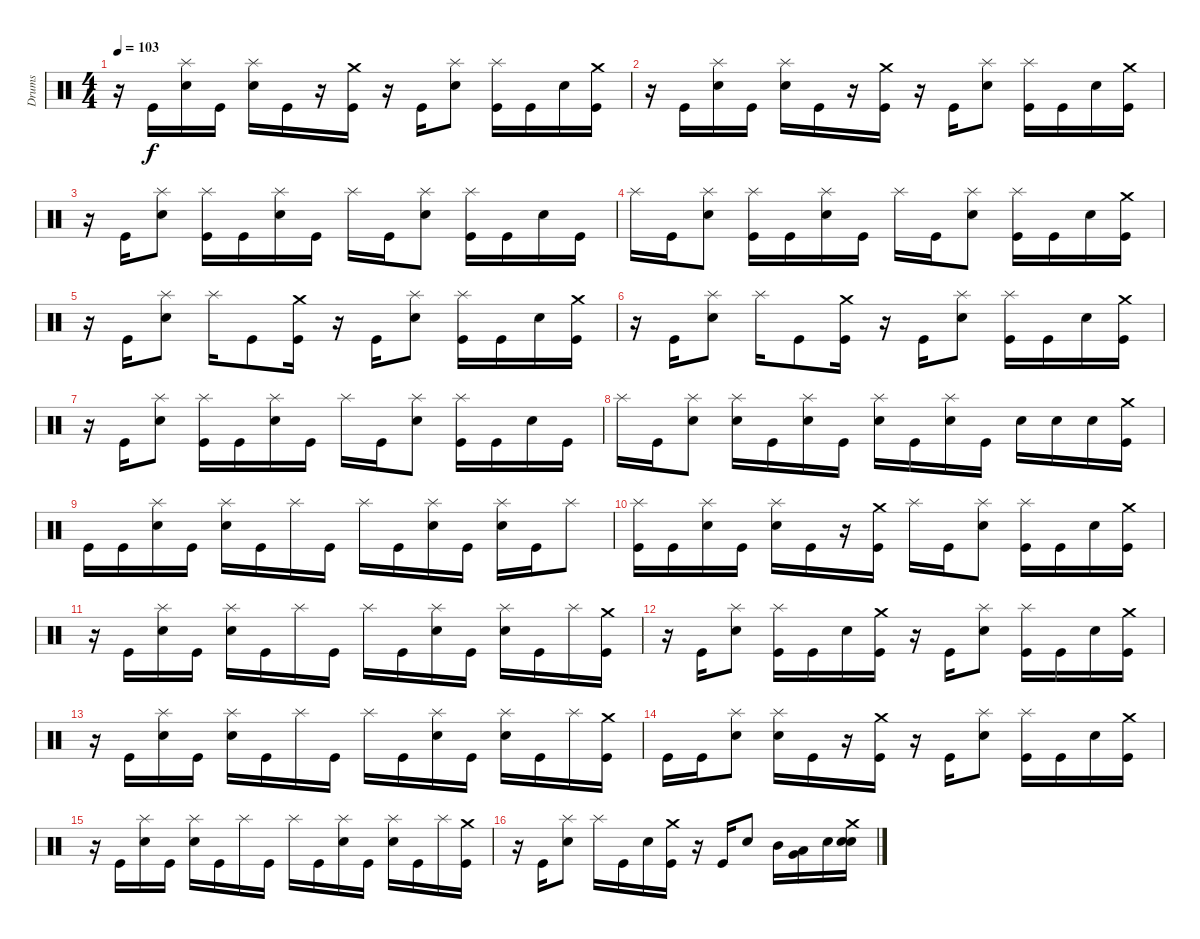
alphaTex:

\track ("Drums" "Drums") {instrument percussion}
\staff {score}
\articulation defaults
\ts (4 4)
\tempo 103
\clef neutral
\ks c
r.16{dy f} "Kick (hit)".16 ("Splash (hit)" "Electric Snare (hit)").16 "Kick (hit)".16 ("Splash (hit)" "Electric Snare (hit)").16 "Kick (hit)".16 r.16 ("Crash medium (hit)" "Kick (hit)").16 r.16 "Kick (hit)".16 ("Splash (hit)" "Electric Snare (hit)").8 ("Kick (hit)" "Splash (hit)").16 "Kick (hit)".16 "Electric Snare (hit)".16 ("Crash medium (hit)" "Kick (hit)").16 |
r.16 "Kick (hit)".16 ("Splash (hit)" "Electric Snare (hit)").16 "Kick (hit)".16 ("Splash (hit)" "Electric Snare (hit)").16 "Kick (hit)".16 r.16 ("Crash medium (hit)" "Kick (hit)").16 r.16 "Kick (hit)".16 ("Splash (hit)" "Electric Snare (hit)").8 ("Kick (hit)" "Splash (hit)").16 "Kick (hit)".16 "Electric Snare (hit)".16 ("Crash medium (hit)" "Kick (hit)").16 |
r.16 "Kick (hit)".16 ("Splash (hit)" "Electric Snare (hit)").8 ("Kick (hit)" "Splash (hit)").16 "Kick (hit)".16 ("Electric Snare (hit)" "Splash (hit)").16 "Kick (hit)".16 "Splash (hit)".16 "Kick (hit)".16 ("Splash (hit)" "Electric Snare (hit)").8 ("Kick (hit)" "Splash (hit)").16 "Kick (hit)".16 "Electric Snare (hit)".16 "Kick (hit)".16 |
"Splash (hit)".16 "Kick (hit)".16 ("Splash (hit)" "Electric Snare (hit)").8 ("Splash (hit)" "Kick (hit)").16 "Kick (hit)".16 ("Splash (hit)" "Electric Snare (hit)").16 "Kick (hit)".16 "Splash (hit)".16 "Kick (hit)".16 ("Splash (hit)" "Electric Snare (hit)").8 ("Splash (hit)" "Kick (hit)").16 "Kick (hit)".16 "Electric Snare (hit)".16 ("Crash medium (hit)" "Kick (hit)").16 |
r.16 "Kick (hit)".16 ("Splash (hit)" "Electric Snare (hit)").8 "Splash (hit)".16 "Kick (hit)".8 ("Crash medium (hit)" "Kick (hit)").16 r.16 "Kick (hit)".16 ("Splash (hit)" "Electric Snare (hit)").8 ("Splash (hit)" "Kick (hit)").16 "Kick (hit)".16 "Electric Snare (hit)".16 ("Crash medium (hit)" "Kick (hit)").16 |
r.16 "Kick (hit)".16 ("Splash (hit)" "Electric Snare (hit)").8 "Splash (hit)".16 "Kick (hit)".8 ("Crash medium (hit)" "Kick (hit)").16 r.16 "Kick (hit)".16 ("Splash (hit)" "Electric Snare (hit)").8 ("Splash (hit)" "Kick (hit)").16 "Kick (hit)".16 "Electric Snare (hit)".16 ("Crash medium (hit)" "Kick (hit)").16 |
r.16 "Kick (hit)".16 ("Splash (hit)" "Electric Snare (hit)").8 ("Kick (hit)" "Splash (hit)").16 "Kick (hit)".16 ("Splash (hit)" "Electric Snare (hit)").16 "Kick (hit)".16 "Splash (hit)".16 "Kick (hit)".16 ("Splash (hit)" "Electric Snare (hit)").8 ("Splash (hit)" "Kick (hit)").16 "Kick (hit)".16 "Electric Snare (hit)".16 "Kick (hit)".16 |
"Splash (hit)".16 "Kick (hit)".16 ("Splash (hit)" "Electric Snare (hit)").8 ("Electric Snare (hit)" "Splash (hit)").16 "Kick (hit)".16 ("Splash (hit)" "Electric Snare (hit)").16 "Kick (hit)".16 ("Electric Snare (hit)" "Splash (hit)").16 "Kick (hit)".16 ("Splash (hit)" "Electric Snare (hit)").16 "Kick (hit)".16 "Electric Snare (hit)".16 "Electric Snare (hit)".16 "Electric Snare (hit)".16 ("Crash medium (hit)" "Kick (hit)").16 |
"Kick (hit)".16 "Kick (hit)".16 ("Splash (hit)" "Electric Snare (hit)").16 "Kick (hit)".16 ("Splash (hit)" "Electric Snare (hit)").16 "Kick (hit)".16 "Splash (hit)".16 "Kick (hit)".16 "Splash (hit)".16 "Kick (hit)".16 ("Splash (hit)" "Electric Snare (hit)").16 "Kick (hit)".16 ("Splash (hit)" "Electric Snare (hit)").16 "Kick (hit)".16 "Splash (hit)".8 |
("Splash (hit)" "Kick (hit)").16 "Kick (hit)".16 ("Splash (hit)" "Electric Snare (hit)").16 "Kick (hit)".16 ("Splash (hit)" "Electric Snare (hit)").16 "Kick (hit)".16 r.16 ("Crash medium (hit)" "Kick (hit)").16 "Splash (hit)".16 "Kick (hit)".16 ("Splash (hit)" "Electric Snare (hit)").8 ("Kick (hit)" "Splash (hit)").16 "Kick (hit)".16 "Electric Snare (hit)".16 ("Kick (hit)" "Crash medium (hit)").16 |
r.16 "Kick (hit)".16 ("Splash (hit)" "Electric Snare (hit)").16 "Kick (hit)".16 ("Splash (hit)" "Electric Snare (hit)").16 "Kick (hit)".16 "Splash (hit)".16 "Kick (hit)".16 "Splash (hit)".16 "Kick (hit)".16 ("Splash (hit)" "Electric Snare (hit)").16 "Kick (hit)".16 ("Splash (hit)" "Electric Snare (hit)").16 "Kick (hit)".16 "Splash (hit)".16 ("Crash medium (hit)" "Kick (hit)").16 |
r.16 "Kick (hit)".16 ("Splash (hit)" "Electric Snare (hit)").8 ("Kick (hit)" "Splash (hit)").16 "Kick (hit)".16 "Electric Snare (hit)".16 ("Crash medium (hit)" "Kick (hit)").16 r.16 "Kick (hit)".16 ("Splash (hit)" "Electric Snare (hit)").8 ("Kick (hit)" "Splash (hit)").16 "Kick (hit)".16 "Electric Snare (hit)".16 ("Crash medium (hit)" "Kick (hit)").16 |
r.16 "Kick (hit)".16 ("Splash (hit)" "Electric Snare (hit)").16 "Kick (hit)".16 ("Splash (hit)" "Electric Snare (hit)").16 "Kick (hit)".16 "Splash (hit)".16 "Kick (hit)".16 "Splash (hit)".16 "Kick (hit)".16 ("Splash (hit)" "Electric Snare (hit)").16 "Kick (hit)".16 ("Splash (hit)" "Electric Snare (hit)").16 "Kick (hit)".16 "Splash (hit)".16 ("Kick (hit)" "Crash medium (hit)").16 |
"Kick (hit)".16 "Kick (hit)".16 ("Splash (hit)" "Electric Snare (hit)").8 ("Electric Snare (hit)" "Splash (hit)").16 "Kick (hit)".16 r.16 ("Crash medium (hit)" "Kick (hit)").16 r.16 "Kick (hit)".16 ("Splash (hit)" "Electric Snare (hit)").8 ("Kick (hit)" "Splash (hit)").16 "Kick (hit)".16 "Electric Snare (hit)".16 ("Crash medium (hit)" "Kick (hit)").16 |
r.16 "Kick (hit)".16 ("Splash (hit)" "Electric Snare (hit)").16 "Kick (hit)".16 ("Splash (hit)" "Electric Snare (hit)").16 "Kick (hit)".16 "Splash (hit)".16 "Kick (hit)".16 "Splash (hit)".16 "Kick (hit)".16 ("Splash (hit)" "Electric Snare (hit)").16 "Kick (hit)".16 ("Splash (hit)" "Electric Snare (hit)").16 "Kick (hit)".16 "Splash (hit)".16 ("Crash medium (hit)" "Kick (hit)").16 |
r.16 "Kick (hit)".16 ("Splash (hit)" "Electric Snare (hit)").8 "Splash (hit)".16 "Kick (hit)".16 "Electric Snare (hit)".16 ("Crash medium (hit)" "Kick (hit)").16 r.16 "Kick (hit)".16 "Electric Snare (hit)".8 "Mid Tom (hit)".16 ("Low Tom (hit)" "Very Low Tom (hit)").16 "Snare (hit) 2".16 ("Snare (hit)" "Crash medium (hit)" "Snare (hit) 2").16
